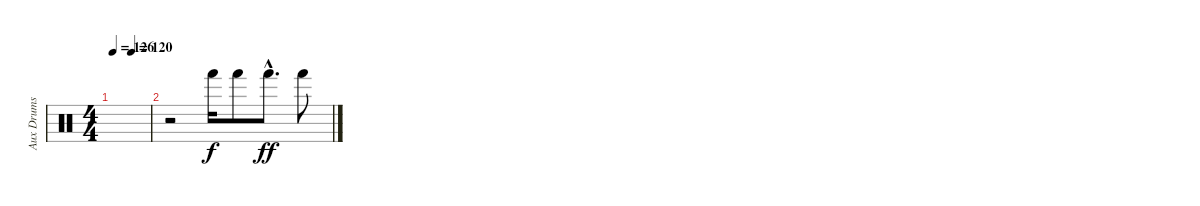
\track ("Aux Drums" "Aux Drums") {instrument percussion}
\staff {score}
\articulation defaults
\ts (4 4)
\tempo 126
\tempo (120 0.5)
\clef neutral
\ks c
|
r.2 "Hand (hit)".16{dy f} "Hand (hit)".8 "Hand (hit)"{hac}.8{d dy ff} "Hand (hit)".8
